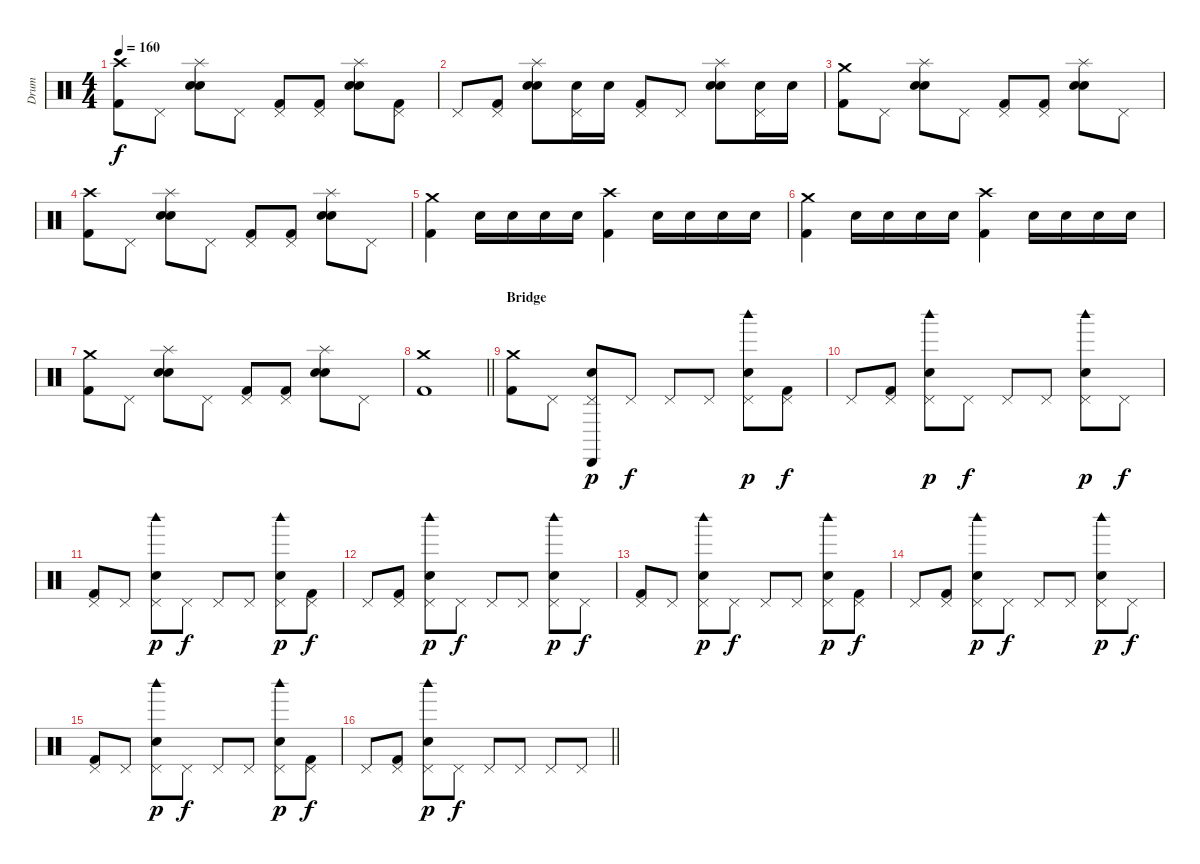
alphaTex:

\track ("Drum" "Drum") {instrument percussion}
\staff {score}
\articulation defaults
\ts (4 4)
\tempo 160
\clef neutral
\ks c
("Crash high (hit)" "Kick (hit) 2").8{dy f} "Pedal Hi-Hat (hit)".8 ("Splash (hit)" "Electric Snare (hit)" "Snare (hit) 2").8 "Pedal Hi-Hat (hit)".8 ("Pedal Hi-Hat (hit)" "Kick (hit) 2").8 ("Pedal Hi-Hat (hit)" "Kick (hit) 2").8 ("Splash (hit)" "Electric Snare (hit)" "Snare (hit) 2").8 ("Pedal Hi-Hat (hit)" "Kick (hit) 2").8 |
"Pedal Hi-Hat (hit)".8 ("Pedal Hi-Hat (hit)" "Kick (hit) 2").8 ("Splash (hit)" "Electric Snare (hit)" "Snare (hit) 2").8 ("Pedal Hi-Hat (hit)" "Electric Snare (hit)").16 "Electric Snare (hit)".16 ("Pedal Hi-Hat (hit)" "Kick (hit) 2").8 "Pedal Hi-Hat (hit)".8 ("Splash (hit)" "Electric Snare (hit)" "Snare (hit) 2").8 ("Pedal Hi-Hat (hit)" "Electric Snare (hit)").16 "Electric Snare (hit)".16 |
("Crash medium (hit)" "Kick (hit) 2").8 "Pedal Hi-Hat (hit)".8 ("Splash (hit)" "Electric Snare (hit)" "Snare (hit) 2").8 "Pedal Hi-Hat (hit)".8 ("Pedal Hi-Hat (hit)" "Kick (hit) 2").8 ("Pedal Hi-Hat (hit)" "Kick (hit) 2").8 ("Splash (hit)" "Electric Snare (hit)" "Snare (hit) 2").8 "Pedal Hi-Hat (hit)".8 |
("Crash high (hit)" "Kick (hit) 2").8 "Pedal Hi-Hat (hit)".8 ("Splash (hit)" "Electric Snare (hit)" "Snare (hit) 2").8 "Pedal Hi-Hat (hit)".8 ("Pedal Hi-Hat (hit)" "Kick (hit) 2").8 ("Pedal Hi-Hat (hit)" "Kick (hit) 2").8 ("Splash (hit)" "Electric Snare (hit)" "Snare (hit) 2").8 "Pedal Hi-Hat (hit)".8 |
("Crash medium (hit)" "Kick (hit) 2").4 "Electric Snare (hit)".16 "Electric Snare (hit)".16 "Electric Snare (hit)".16 "Electric Snare (hit)".16 ("Crash high (hit)" "Kick (hit) 2").4 "Electric Snare (hit)".16 "Electric Snare (hit)".16 "Electric Snare (hit)".16 "Electric Snare (hit)".16 |
("Crash medium (hit)" "Kick (hit) 2").4 "Electric Snare (hit)".16 "Electric Snare (hit)".16 "Electric Snare (hit)".16 "Electric Snare (hit)".16 ("Crash high (hit)" "Kick (hit) 2").4 "Electric Snare (hit)".16 "Electric Snare (hit)".16 "Electric Snare (hit)".16 "Electric Snare (hit)".16 |
("Crash medium (hit)" "Kick (hit) 2").8 "Pedal Hi-Hat (hit)".8 ("Splash (hit)" "Electric Snare (hit)" "Snare (hit) 2").8 "Pedal Hi-Hat (hit)".8 ("Pedal Hi-Hat (hit)" "Kick (hit) 2").8 ("Pedal Hi-Hat (hit)" "Kick (hit) 2").8 ("Splash (hit)" "Electric Snare (hit)" "Snare (hit) 2").8 "Pedal Hi-Hat (hit)".8 |
\barLineRight lightlight
("Crash medium (hit)" "Kick (hit) 2").1 |
\section ("" "Bridge")
("Crash medium (hit)" "Kick (hit) 2").8 "Pedal Hi-Hat (hit)".8 ("Pedal Hi-Hat (hit)" "Cabasa (hit)" "Electric Snare (hit)").8{dy p} "Pedal Hi-Hat (hit)".8{dy f} "Pedal Hi-Hat (hit)".8 "Pedal Hi-Hat (hit)".8 ("Pedal Hi-Hat (hit)" "Woodblock high (hit)" "Electric Snare (hit)").8{dy p} ("Pedal Hi-Hat (hit)" "Kick (hit) 2").8{dy f} |
"Pedal Hi-Hat (hit)".8 ("Pedal Hi-Hat (hit)" "Kick (hit) 2").8 ("Pedal Hi-Hat (hit)" "Woodblock high (hit)" "Electric Snare (hit)").8{dy p} "Pedal Hi-Hat (hit)".8{dy f} "Pedal Hi-Hat (hit)".8 "Pedal Hi-Hat (hit)".8 ("Pedal Hi-Hat (hit)" "Woodblock high (hit)" "Electric Snare (hit)").8{dy p} "Pedal Hi-Hat (hit)".8{dy f} |
("Pedal Hi-Hat (hit)" "Kick (hit) 2").8 "Pedal Hi-Hat (hit)".8 ("Pedal Hi-Hat (hit)" "Woodblock high (hit)" "Electric Snare (hit)").8{dy p} "Pedal Hi-Hat (hit)".8{dy f} "Pedal Hi-Hat (hit)".8 "Pedal Hi-Hat (hit)".8 ("Pedal Hi-Hat (hit)" "Woodblock high (hit)" "Electric Snare (hit)").8{dy p} ("Pedal Hi-Hat (hit)" "Kick (hit) 2").8{dy f} |
"Pedal Hi-Hat (hit)".8 ("Pedal Hi-Hat (hit)" "Kick (hit) 2").8 ("Pedal Hi-Hat (hit)" "Woodblock high (hit)" "Electric Snare (hit)").8{dy p} "Pedal Hi-Hat (hit)".8{dy f} "Pedal Hi-Hat (hit)".8 "Pedal Hi-Hat (hit)".8 ("Pedal Hi-Hat (hit)" "Woodblock high (hit)" "Electric Snare (hit)").8{dy p} "Pedal Hi-Hat (hit)".8{dy f} |
("Pedal Hi-Hat (hit)" "Kick (hit) 2").8 "Pedal Hi-Hat (hit)".8 ("Pedal Hi-Hat (hit)" "Woodblock high (hit)" "Electric Snare (hit)").8{dy p} "Pedal Hi-Hat (hit)".8{dy f} "Pedal Hi-Hat (hit)".8 "Pedal Hi-Hat (hit)".8 ("Pedal Hi-Hat (hit)" "Woodblock high (hit)" "Electric Snare (hit)").8{dy p} ("Pedal Hi-Hat (hit)" "Kick (hit) 2").8{dy f} |
"Pedal Hi-Hat (hit)".8 ("Pedal Hi-Hat (hit)" "Kick (hit) 2").8 ("Pedal Hi-Hat (hit)" "Woodblock high (hit)" "Electric Snare (hit)").8{dy p} "Pedal Hi-Hat (hit)".8{dy f} "Pedal Hi-Hat (hit)".8 "Pedal Hi-Hat (hit)".8 ("Pedal Hi-Hat (hit)" "Woodblock high (hit)" "Electric Snare (hit)").8{dy p} "Pedal Hi-Hat (hit)".8{dy f} |
("Pedal Hi-Hat (hit)" "Kick (hit) 2").8 "Pedal Hi-Hat (hit)".8 ("Pedal Hi-Hat (hit)" "Woodblock high (hit)" "Electric Snare (hit)").8{dy p} "Pedal Hi-Hat (hit)".8{dy f} "Pedal Hi-Hat (hit)".8 "Pedal Hi-Hat (hit)".8 ("Pedal Hi-Hat (hit)" "Woodblock high (hit)" "Electric Snare (hit)").8{dy p} ("Pedal Hi-Hat (hit)" "Kick (hit) 2").8{dy f} |
\barLineRight lightlight "Pedal Hi-Hat (hit)".8
("Pedal Hi-Hat (hit)" "Kick (hit) 2").8 ("Pedal Hi-Hat (hit)" "Woodblock high (hit)" "Electric Snare (hit)").8{dy p} "Pedal Hi-Hat (hit)".8{dy f} "Pedal Hi-Hat (hit)".8 "Pedal Hi-Hat (hit)".8 "Pedal Hi-Hat (hit)".8 "Pedal Hi-Hat (hit)".8
